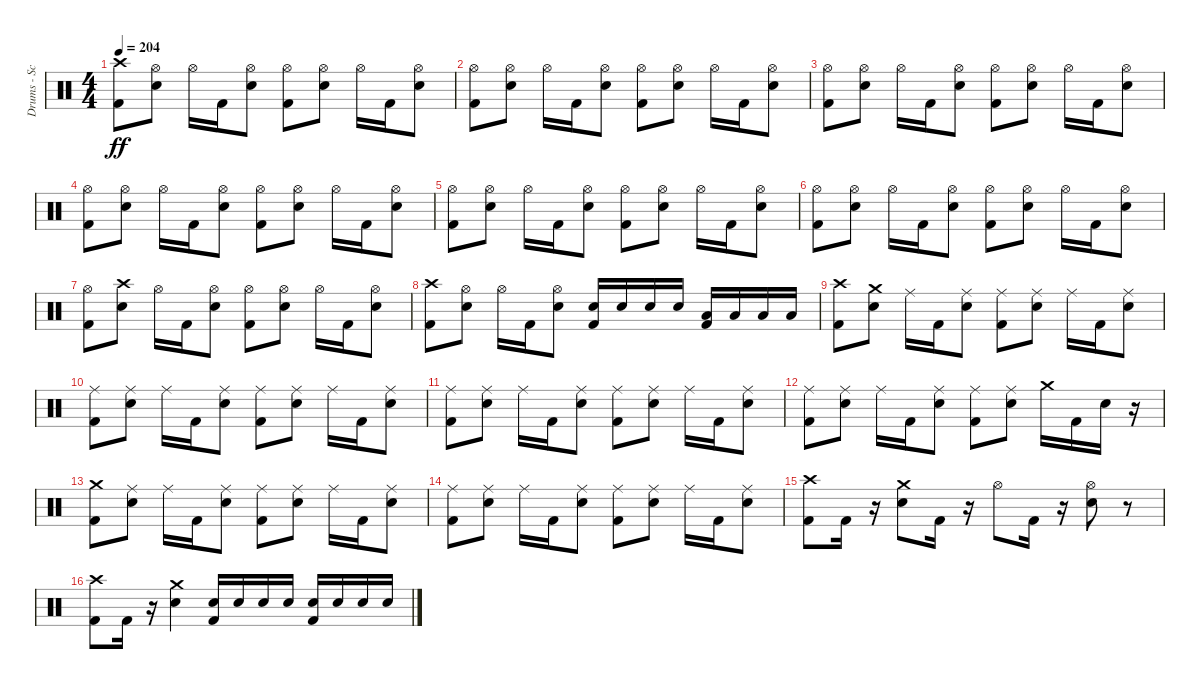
\track ("Drums - Scott" "Drums - Sc") {instrument percussion}
\staff {score}
\articulation defaults
\ts (4 4)
\tempo 204
\clef neutral
\ks c
("Crash high (hit)" "Kick (hit) 2").8{dy ff} ("Electric Snare (hit)" "Hi-Hat (open)").8 "Hi-Hat (open)".16 "Kick (hit) 2".16 ("Electric Snare (hit)" "Hi-Hat (open)").8 ("Hi-Hat (open)" "Kick (hit) 2").8 ("Electric Snare (hit)" "Hi-Hat (open)").8 "Hi-Hat (open)".16 "Kick (hit) 2".16 ("Electric Snare (hit)" "Hi-Hat (open)").8 |
("Hi-Hat (open)" "Kick (hit) 2").8 ("Electric Snare (hit)" "Hi-Hat (open)").8 "Hi-Hat (open)".16 "Kick (hit) 2".16 ("Electric Snare (hit)" "Hi-Hat (open)").8 ("Hi-Hat (open)" "Kick (hit) 2").8 ("Electric Snare (hit)" "Hi-Hat (open)").8 "Hi-Hat (open)".16 "Kick (hit) 2".16 ("Electric Snare (hit)" "Hi-Hat (open)").8 |
("Hi-Hat (open)" "Kick (hit) 2").8 ("Electric Snare (hit)" "Hi-Hat (open)").8 "Hi-Hat (open)".16 "Kick (hit) 2".16 ("Electric Snare (hit)" "Hi-Hat (open)").8 ("Hi-Hat (open)" "Kick (hit) 2").8 ("Electric Snare (hit)" "Hi-Hat (open)").8 "Hi-Hat (open)".16 "Kick (hit) 2".16 ("Electric Snare (hit)" "Hi-Hat (open)").8 |
("Hi-Hat (open)" "Kick (hit) 2").8 ("Electric Snare (hit)" "Hi-Hat (open)").8 "Hi-Hat (open)".16 "Kick (hit) 2".16 ("Electric Snare (hit)" "Hi-Hat (open)").8 ("Hi-Hat (open)" "Kick (hit) 2").8 ("Electric Snare (hit)" "Hi-Hat (open)").8 "Hi-Hat (open)".16 "Kick (hit) 2".16 ("Electric Snare (hit)" "Hi-Hat (open)").8 |
("Hi-Hat (open)" "Kick (hit) 2").8 ("Electric Snare (hit)" "Hi-Hat (open)").8 "Hi-Hat (open)".16 "Kick (hit) 2".16 ("Electric Snare (hit)" "Hi-Hat (open)").8 ("Hi-Hat (open)" "Kick (hit) 2").8 ("Electric Snare (hit)" "Hi-Hat (open)").8 "Hi-Hat (open)".16 "Kick (hit) 2".16 ("Electric Snare (hit)" "Hi-Hat (open)").8 |
("Hi-Hat (open)" "Kick (hit) 2").8 ("Electric Snare (hit)" "Hi-Hat (open)").8 "Hi-Hat (open)".16 "Kick (hit) 2".16 ("Electric Snare (hit)" "Hi-Hat (open)").8 ("Hi-Hat (open)" "Kick (hit) 2").8 ("Electric Snare (hit)" "Hi-Hat (open)").8 "Hi-Hat (open)".16 "Kick (hit) 2".16 ("Electric Snare (hit)" "Hi-Hat (open)").8 |
("Kick (hit) 2" "Hi-Hat (open)").8 ("Electric Snare (hit)" "Crash high (hit)").8 "Hi-Hat (open)".16 "Kick (hit) 2".16 ("Electric Snare (hit)" "Hi-Hat (open)").8 ("Hi-Hat (open)" "Kick (hit) 2").8 ("Electric Snare (hit)" "Hi-Hat (open)").8 "Hi-Hat (open)".16 "Kick (hit) 2".16 ("Electric Snare (hit)" "Hi-Hat (open)").8 |
("Crash high (hit)" "Kick (hit) 2").8 ("Electric Snare (hit)" "Hi-Hat (open)").8 "Hi-Hat (open)".16 "Kick (hit) 2".16 ("Electric Snare (hit)" "Hi-Hat (open)").8 ("Kick (hit) 2" "Electric Snare (hit)").16 "Electric Snare (hit)".16 "Electric Snare (hit)".16 "Electric Snare (hit)".16 ("Kick (hit) 2" "Low Tom (hit)").16 "Low Tom (hit)".16 "Low Tom (hit)".16 "Low Tom (hit)".16 |
("Kick (hit) 2" "Crash high (hit)").8 ("Electric Snare (hit)" "Crash medium (hit)").8 "Ride (middle)".16 "Kick (hit) 2".16 ("Electric Snare (hit)" "Ride (middle)").8 ("Kick (hit) 2" "Ride (middle)").8 ("Electric Snare (hit)" "Ride (middle)").8 "Ride (middle)".16 "Kick (hit) 2".16 ("Electric Snare (hit)" "Ride (middle)").8 |
("Kick (hit) 2" "Ride (middle)").8 ("Electric Snare (hit)" "Ride (middle)").8 "Ride (middle)".16 "Kick (hit) 2".16 ("Electric Snare (hit)" "Ride (middle)").8 ("Kick (hit) 2" "Ride (middle)").8 ("Electric Snare (hit)" "Ride (middle)").8 "Ride (middle)".16 "Kick (hit) 2".16 ("Electric Snare (hit)" "Ride (middle)").8 |
("Kick (hit) 2" "Ride (middle)").8 ("Electric Snare (hit)" "Ride (middle)").8 "Ride (middle)".16 "Kick (hit) 2".16 ("Electric Snare (hit)" "Ride (middle)").8 ("Kick (hit) 2" "Ride (middle)").8 ("Electric Snare (hit)" "Ride (middle)").8 "Ride (middle)".16 "Kick (hit) 2".16 ("Electric Snare (hit)" "Ride (middle)").8 |
("Kick (hit) 2" "Ride (middle)").8 ("Electric Snare (hit)" "Ride (middle)").8 "Ride (middle)".16 "Kick (hit) 2".16 ("Electric Snare (hit)" "Ride (middle)").8 ("Kick (hit) 2" "Ride (middle)").8 ("Electric Snare (hit)" "Ride (middle)").8 "Crash medium (hit)".16 "Kick (hit) 2".16 "Electric Snare (hit)".16 r.16 |
("Crash medium (hit)" "Kick (hit) 2").8 ("Electric Snare (hit)" "Ride (middle)").8 "Ride (middle)".16 "Kick (hit) 2".16 ("Electric Snare (hit)" "Ride (middle)").8 ("Kick (hit) 2" "Ride (middle)").8 ("Electric Snare (hit)" "Ride (middle)").8 "Ride (middle)".16 "Kick (hit) 2".16 ("Electric Snare (hit)" "Ride (middle)").8 |
("Kick (hit) 2" "Ride (middle)").8 ("Electric Snare (hit)" "Ride (middle)").8 "Ride (middle)".16 "Kick (hit) 2".16 ("Electric Snare (hit)" "Ride (middle)").8 ("Kick (hit) 2" "Ride (middle)").8 ("Electric Snare (hit)" "Ride (middle)").8 "Ride (middle)".16 "Kick (hit) 2".16 ("Electric Snare (hit)" "Ride (middle)").8 |
("Kick (hit) 2" "Crash high (hit)").8 "Kick (hit) 2".16 r.16 ("Electric Snare (hit)" "Crash medium (hit)").8 "Kick (hit) 2".16 r.16 "Hi-Hat (open)".8 "Kick (hit) 2".16 r.16 ("Electric Snare (hit)" "Hi-Hat (open)").8 r.8 |
("Kick (hit) 2" "Crash high (hit)").8 "Kick (hit) 2".16 r.16 ("Electric Snare (hit)" "Crash medium (hit)").4 ("Kick (hit) 2" "Electric Snare (hit)").16 "Electric Snare (hit)".16 "Electric Snare (hit)".16 "Electric Snare (hit)".16 ("Kick (hit) 2" "Electric Snare (hit)").16 "Electric Snare (hit)".16 "Electric Snare (hit)".16 "Electric Snare (hit)".16
